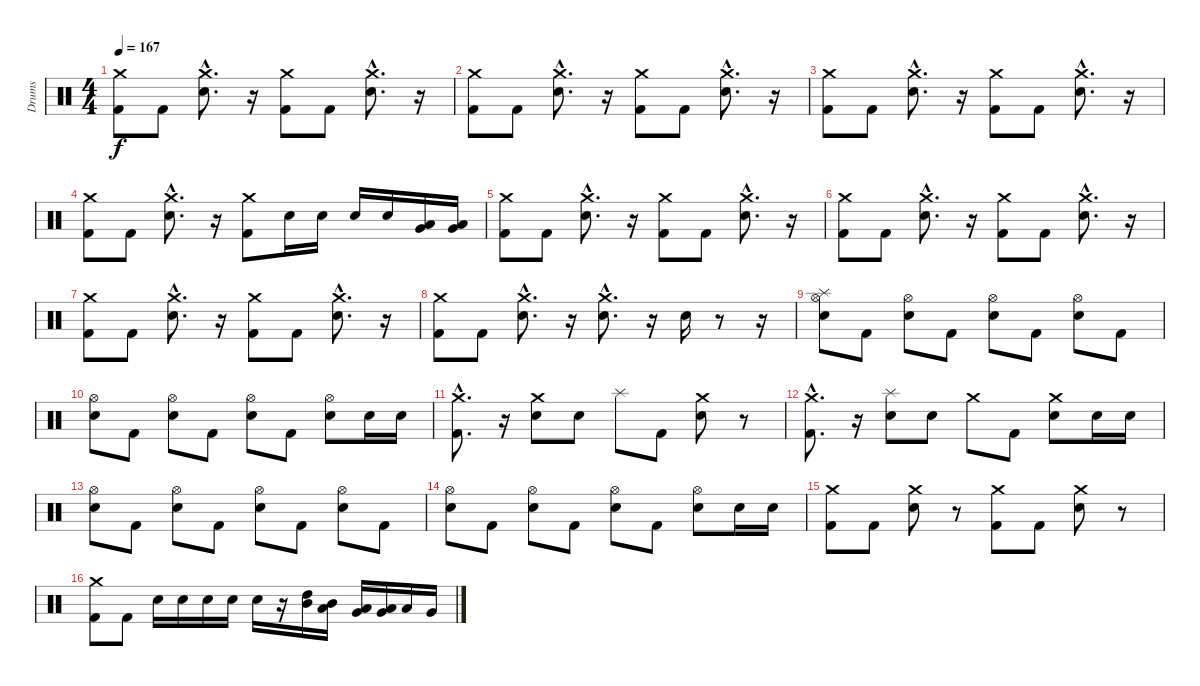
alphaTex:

\track ("Drums" "Drums") {instrument percussion}
\staff {score}
\articulation defaults
\ts (4 4)
\tempo 167
\clef neutral
\ks c
("Kick (hit) 2" "Crash medium (hit)").8{dy f} "Kick (hit) 2".8 ("Snare (hit) 2"{hac} "Crash medium (hit)"{hac}).8{d} r.16 ("Kick (hit) 2" "Crash medium (hit)").8 "Kick (hit) 2".8 ("Snare (hit) 2"{hac} "Crash medium (hit)"{hac}).8{d} r.16 |
("Kick (hit) 2" "Crash medium (hit)").8 "Kick (hit) 2".8 ("Snare (hit) 2"{hac} "Crash medium (hit)"{hac}).8{d} r.16 ("Kick (hit) 2" "Crash medium (hit)").8 "Kick (hit) 2".8 ("Snare (hit) 2"{hac} "Crash medium (hit)"{hac}).8{d} r.16 |
("Kick (hit) 2" "Crash medium (hit)").8 "Kick (hit) 2".8 ("Snare (hit) 2"{hac} "Crash medium (hit)"{hac}).8{d} r.16 ("Kick (hit) 2" "Crash medium (hit)").8 "Kick (hit) 2".8 ("Snare (hit) 2"{hac} "Crash medium (hit)"{hac}).8{d} r.16 |
("Kick (hit) 2" "Crash medium (hit)").8 "Kick (hit) 2".8 ("Snare (hit) 2"{hac} "Crash medium (hit)"{hac}).8{d} r.16 ("Kick (hit) 2" "Crash medium (hit)").8 "Snare (hit) 2".16 "Snare (hit) 2".16 "Snare (hit) 2".16 "Snare (hit) 2".16 ("Very Low Tom (hit)" "Low Tom (hit)").16 ("Low Floor Tom (hit)" "Very Low Tom (hit)").16 |
("Kick (hit) 2" "Crash medium (hit)").8 "Kick (hit) 2".8 ("Snare (hit) 2"{hac} "Crash medium (hit)"{hac}).8{d} r.16 ("Kick (hit) 2" "Crash medium (hit)").8 "Kick (hit) 2".8 ("Snare (hit) 2"{hac} "Crash medium (hit)"{hac}).8{d} r.16 |
("Kick (hit) 2" "Crash medium (hit)").8 "Kick (hit) 2".8 ("Snare (hit) 2"{hac} "Crash medium (hit)"{hac}).8{d} r.16 ("Kick (hit) 2" "Crash medium (hit)").8 "Kick (hit) 2".8 ("Snare (hit) 2"{hac} "Crash medium (hit)"{hac}).8{d} r.16 |
("Kick (hit) 2" "Crash medium (hit)").8 "Kick (hit) 2".8 ("Snare (hit) 2"{hac} "Crash medium (hit)"{hac}).8{d} r.16 ("Kick (hit) 2" "Crash medium (hit)").8 "Kick (hit) 2".8 ("Snare (hit) 2"{hac} "Crash medium (hit)"{hac}).8{d} r.16 |
("Kick (hit) 2" "Crash medium (hit)").8 "Kick (hit) 2".8 ("Snare (hit) 2"{hac} "Crash medium (hit)"{hac}).8{d} r.16 ("Snare (hit) 2"{hac} "Crash medium (hit)"{hac}).8{d} r.16 "Snare (hit) 2".16 r.8 r.16 |
("Hi-Hat (open)" "Snare (hit) 2" "Splash (hit)").8 "Kick (hit) 2".8 ("Hi-Hat (open)" "Snare (hit) 2").8 "Kick (hit) 2".8 ("Hi-Hat (open)" "Snare (hit) 2").8 "Kick (hit) 2".8 ("Hi-Hat (open)" "Snare (hit) 2").8 "Kick (hit) 2".8 |
("Snare (hit) 2" "Hi-Hat (open)").8 "Kick (hit) 2".8 ("Snare (hit) 2" "Hi-Hat (open)").8 "Kick (hit) 2".8 ("Snare (hit) 2" "Hi-Hat (open)").8 "Kick (hit) 2".8 ("Snare (hit) 2" "Hi-Hat (open)").8 "Snare (hit) 2".16 "Snare (hit) 2".16 |
("Kick (hit) 2"{hac} "Crash medium (hit)"{hac}).8{d} r.16 ("Snare (hit) 2" "Crash medium (hit)").8 "Snare (hit) 2".8 "Splash (hit)".8 "Kick (hit) 2".8 ("Snare (hit) 2" "Crash medium (hit)").8 r.8 |
("Kick (hit) 2"{hac} "Crash medium (hit)"{hac}).8{d} r.16 ("Snare (hit) 2" "Splash (hit)").8 "Snare (hit) 2".8 "Crash medium (hit)".8 "Kick (hit) 2".8 ("Snare (hit) 2" "Crash medium (hit)").8 "Snare (hit) 2".16 "Snare (hit) 2".16 |
("Hi-Hat (open)" "Snare (hit) 2").8 "Kick (hit) 2".8 ("Hi-Hat (open)" "Snare (hit) 2").8 "Kick (hit) 2".8 ("Hi-Hat (open)" "Snare (hit) 2").8 "Kick (hit) 2".8 ("Hi-Hat (open)" "Snare (hit) 2").8 "Kick (hit) 2".8 |
("Snare (hit) 2" "Hi-Hat (open)").8 "Kick (hit) 2".8 ("Snare (hit) 2" "Hi-Hat (open)").8 "Kick (hit) 2".8 ("Snare (hit) 2" "Hi-Hat (open)").8 "Kick (hit) 2".8 ("Snare (hit) 2" "Hi-Hat (open)").8 "Snare (hit) 2".16 "Snare (hit) 2".16 |
("Kick (hit) 2" "Crash medium (hit)").8 "Kick (hit) 2".8 ("Snare (hit) 2" "Crash medium (hit)").8 r.8 ("Crash medium (hit)" "Kick (hit) 2").8 "Kick (hit) 2".8 ("Crash medium (hit)" "Snare (hit) 2").8 r.8 |
("Crash medium (hit)" "Kick (hit) 2").8 "Kick (hit) 2".8 "Snare (hit) 2".16 "Snare (hit) 2".16 "Snare (hit) 2".16 "Snare (hit) 2".16 "Snare (hit) 2".16 r.16 ("High Tom (hit)" "Mid Tom (hit)").16 ("Mid Tom (hit)" "Low Tom (hit)").16 ("Low Tom (hit)" "Very Low Tom (hit)").16 ("Very Low Tom (hit)" "Low Floor Tom (hit)").16 "Low Floor Tom (hit)".16 "Very Low Tom (hit)".16
